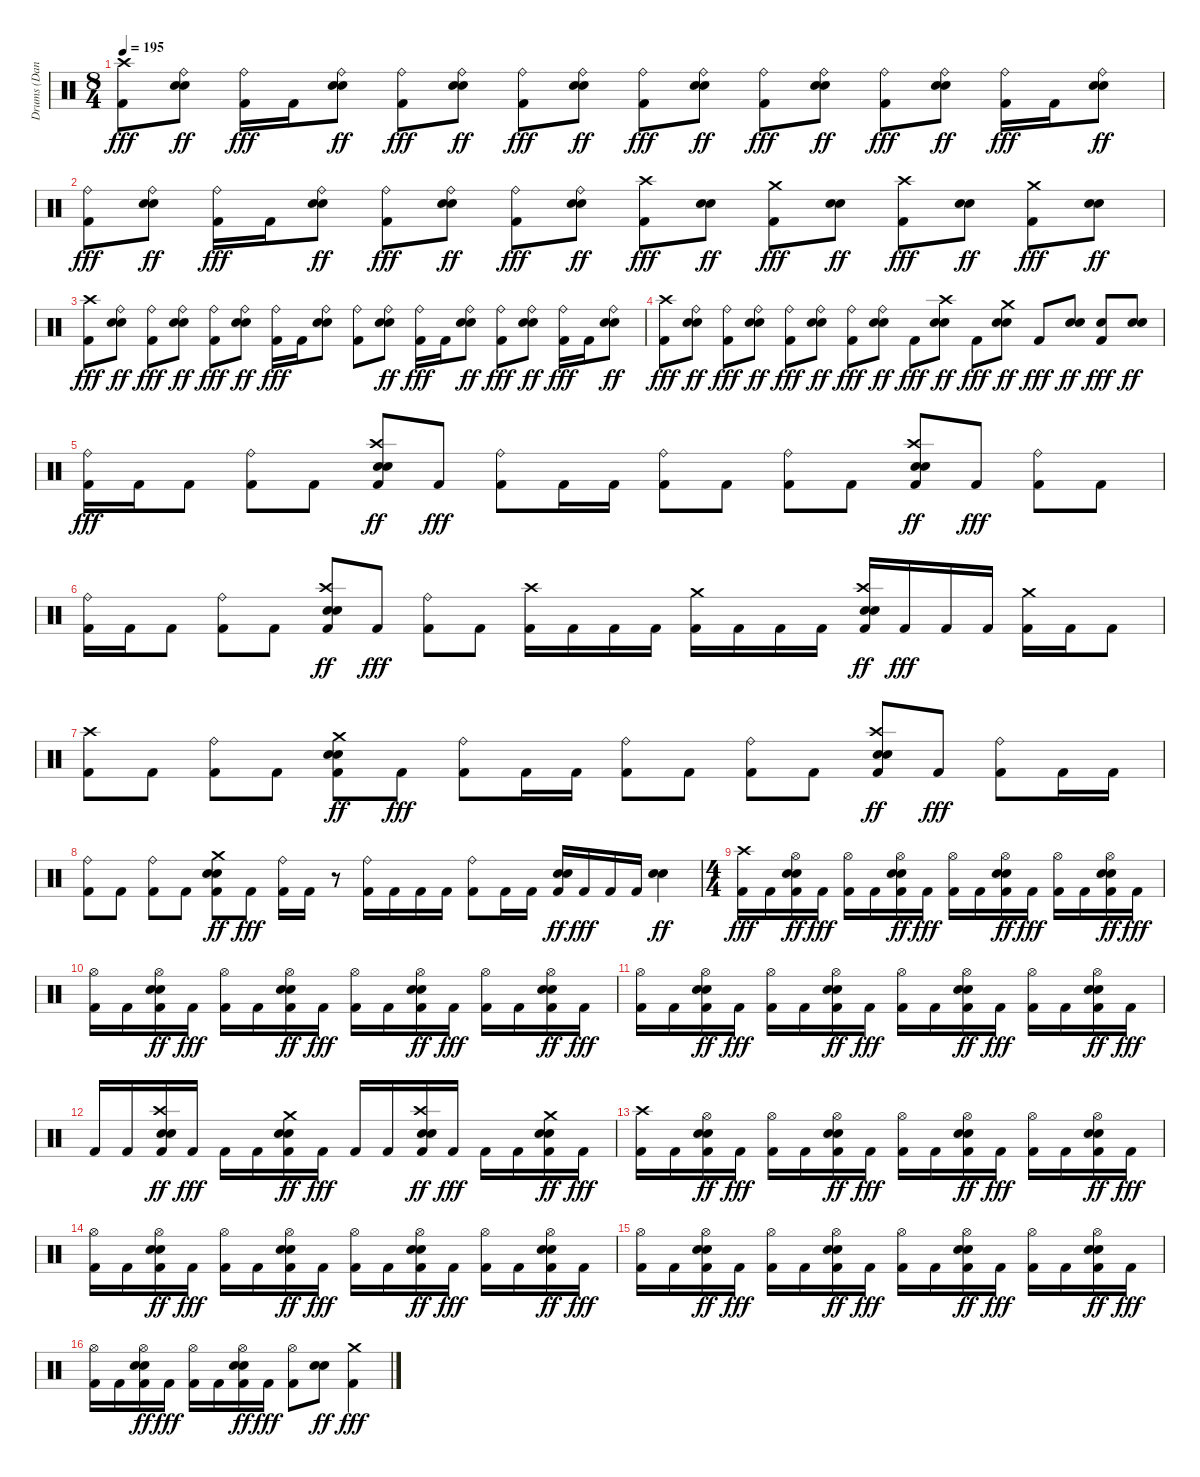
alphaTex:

\track ("Drums (Dan Zimmermann)" "Drums (Dan") {instrument percussion}
\staff {score}
\articulation defaults
\ts (8 4)
\tempo 195
\clef neutral
\ks c
("Kick (hit) 2" "Crash high (hit)").8{dy fff} ("Metronome (bell)" "Ride (bell)" "Snare (hit) 2").8{dy ff} ("Kick (hit) 2" "Ride (bell)").16{dy fff} "Kick (hit) 2".16 ("Metronome (bell)" "Ride (bell)" "Snare (hit) 2").8{dy ff} ("Kick (hit) 2" "Ride (bell)").8{dy fff} ("Metronome (bell)" "Ride (bell)" "Snare (hit) 2").8{dy ff} ("Kick (hit) 2" "Ride (bell)").8{dy fff} ("Metronome (bell)" "Ride (bell)" "Snare (hit) 2").8{dy ff} ("Kick (hit) 2" "Ride (bell)").8{dy fff} ("Metronome (bell)" "Ride (bell)" "Snare (hit) 2").8{dy ff} ("Kick (hit) 2" "Ride (bell)").8{dy fff} ("Metronome (bell)" "Ride (bell)" "Snare (hit) 2").8{dy ff} ("Kick (hit) 2" "Ride (bell)").8{dy fff} ("Metronome (bell)" "Ride (bell)" "Snare (hit) 2").8{dy ff} ("Kick (hit) 2" "Ride (bell)").16{dy fff} "Kick (hit) 2".16 ("Metronome (bell)" "Ride (bell)" "Snare (hit) 2").8{dy ff} |
("Kick (hit) 2" "Ride (bell)").8{dy fff} ("Metronome (bell)" "Ride (bell)" "Snare (hit) 2").8{dy ff} ("Kick (hit) 2" "Ride (bell)").16{dy fff} "Kick (hit) 2".16 ("Metronome (bell)" "Ride (bell)" "Snare (hit) 2").8{dy ff} ("Kick (hit) 2" "Ride (bell)").8{dy fff} ("Metronome (bell)" "Ride (bell)" "Snare (hit) 2").8{dy ff} ("Kick (hit) 2" "Ride (bell)").8{dy fff} ("Metronome (bell)" "Ride (bell)" "Snare (hit) 2").8{dy ff} ("Kick (hit) 2" "Crash high (hit)").8{dy fff} ("Metronome (bell)" "Snare (hit) 2").8{dy ff} ("Kick (hit) 2" "Crash medium (hit)").8{dy fff} ("Metronome (bell)" "Snare (hit) 2").8{dy ff} ("Kick (hit) 2" "Crash high (hit)").8{dy fff} ("Metronome (bell)" "Snare (hit) 2").8{dy ff} ("Kick (hit) 2" "Crash medium (hit)").8{dy fff} ("Metronome (bell)" "Snare (hit) 2").8{dy ff} |
("Kick (hit) 2" "Crash high (hit)").8{dy fff} ("Metronome (bell)" "Ride (bell)" "Snare (hit) 2").8{dy ff} ("Kick (hit) 2" "Ride (bell)").8{dy fff} ("Metronome (bell)" "Ride (bell)" "Snare (hit) 2").8{dy ff} ("Kick (hit) 2" "Ride (bell)").8{dy fff} ("Metronome (bell)" "Ride (bell)" "Snare (hit) 2").8{dy ff} ("Kick (hit) 2" "Ride (bell)").16{dy fff} "Kick (hit) 2".16 ("Metronome (bell)" "Ride (bell)" "Snare (hit) 2").8 ("Kick (hit) 2" "Ride (bell)").8 ("Metronome (bell)" "Ride (bell)" "Snare (hit) 2").8{dy ff} ("Kick (hit) 2" "Ride (bell)").16{dy fff} "Kick (hit) 2".16 ("Metronome (bell)" "Ride (bell)" "Snare (hit) 2").8{dy ff} ("Kick (hit) 2" "Ride (bell)").8{dy fff} ("Metronome (bell)" "Ride (bell)" "Snare (hit) 2").8{dy ff} ("Kick (hit) 2" "Ride (bell)").16{dy fff} "Kick (hit) 2".16 ("Metronome (bell)" "Ride (bell)" "Snare (hit) 2").8{dy ff} |
("Kick (hit) 2" "Crash high (hit)").8{dy fff} ("Metronome (bell)" "Ride (bell)" "Snare (hit) 2").8{dy ff} ("Kick (hit) 2" "Ride (bell)").8{dy fff} ("Metronome (bell)" "Ride (bell)" "Snare (hit) 2").8{dy ff} ("Kick (hit) 2" "Ride (bell)").8{dy fff} ("Metronome (bell)" "Ride (bell)" "Snare (hit) 2").8{dy ff} ("Kick (hit) 2" "Ride (bell)").8{dy fff} ("Metronome (bell)" "Ride (bell)" "Snare (hit) 2").8{dy ff} "Kick (hit) 2".8{dy fff} ("Metronome (bell)" "Crash high (hit)" "Snare (hit) 2").8{dy ff} "Kick (hit) 2".8{dy fff} ("Metronome (bell)" "Crash medium (hit)" "Snare (hit) 2").8{dy ff} "Kick (hit) 2".8{dy fff} ("Metronome (bell)" "Snare (hit) 2").8{dy ff} ("Metronome (bell)" "Kick (hit) 2").8{dy fff} ("Metronome (bell)" "Snare (hit) 2").8{dy ff} |
("Kick (hit) 2" "Ride (bell)").16{dy fff} "Kick (hit) 2".16 "Kick (hit) 2".8 ("Kick (hit) 2" "Ride (bell)").8 "Kick (hit) 2".8 ("Metronome (bell)" "Kick (hit) 2" "Crash high (hit)" "Snare (hit) 2").8{dy ff} "Kick (hit) 2".8{dy fff} ("Kick (hit) 2" "Ride (bell)").8 "Kick (hit) 2".16 "Kick (hit) 2".16 ("Kick (hit) 2" "Ride (bell)").8 "Kick (hit) 2".8 ("Kick (hit) 2" "Ride (bell)").8 "Kick (hit) 2".8 ("Metronome (bell)" "Kick (hit) 2" "Crash high (hit)" "Snare (hit) 2").8{dy ff} "Kick (hit) 2".8{dy fff} ("Kick (hit) 2" "Ride (bell)").8 "Kick (hit) 2".8 |
("Kick (hit) 2" "Ride (bell)").16 "Kick (hit) 2".16 "Kick (hit) 2".8 ("Kick (hit) 2" "Ride (bell)").8 "Kick (hit) 2".8 ("Metronome (bell)" "Kick (hit) 2" "Crash high (hit)" "Snare (hit) 2").8{dy ff} "Kick (hit) 2".8{dy fff} ("Kick (hit) 2" "Ride (bell)").8 "Kick (hit) 2".8 ("Kick (hit) 2" "Crash high (hit)").16 "Kick (hit) 2".16 "Kick (hit) 2".16 "Kick (hit) 2".16 ("Kick (hit) 2" "Crash medium (hit)").16 "Kick (hit) 2".16 "Kick (hit) 2".16 "Kick (hit) 2".16 ("Metronome (bell)" "Kick (hit) 2" "Crash high (hit)" "Snare (hit) 2").16{dy ff} "Kick (hit) 2".16{dy fff} "Kick (hit) 2".16 "Kick (hit) 2".16 ("Kick (hit) 2" "Crash medium (hit)").16 "Kick (hit) 2".16 "Kick (hit) 2".8 |
("Kick (hit) 2" "Crash high (hit)").8 "Kick (hit) 2".8 ("Kick (hit) 2" "Ride (bell)").8 "Kick (hit) 2".8 ("Metronome (bell)" "Kick (hit) 2" "Crash medium (hit)" "Snare (hit) 2").8{dy ff} "Kick (hit) 2".8{dy fff} ("Kick (hit) 2" "Ride (bell)").8 "Kick (hit) 2".16 "Kick (hit) 2".16 ("Kick (hit) 2" "Ride (bell)").8 "Kick (hit) 2".8 ("Kick (hit) 2" "Ride (bell)").8 "Kick (hit) 2".8 ("Metronome (bell)" "Kick (hit) 2" "Crash high (hit)" "Snare (hit) 2").8{dy ff} "Kick (hit) 2".8{dy fff} ("Kick (hit) 2" "Ride (bell)").8 "Kick (hit) 2".16 "Kick (hit) 2".16 |
("Kick (hit) 2" "Ride (bell)").8 "Kick (hit) 2".8 ("Kick (hit) 2" "Ride (bell)").8 "Kick (hit) 2".8 ("Metronome (bell)" "Kick (hit) 2" "Crash medium (hit)" "Snare (hit) 2").8{dy ff} "Kick (hit) 2".8{dy fff} ("Kick (hit) 2" "Ride (bell)").16 "Kick (hit) 2".16 r.8 ("Kick (hit) 2" "Ride (bell)").16 "Kick (hit) 2".16 "Kick (hit) 2".16 "Kick (hit) 2".16 ("Kick (hit) 2" "Ride (bell)").8 "Kick (hit) 2".16 "Kick (hit) 2".16 ("Metronome (bell)" "Kick (hit) 2" "Snare (hit) 2").16{dy ff} "Kick (hit) 2".16{dy fff} "Kick (hit) 2".16 "Kick (hit) 2".16 ("Metronome (bell)" "Snare (hit) 2").4{dy ff} |
\ts (4 4)
("Kick (hit) 2" "Crash high (hit)").16{dy fff} "Kick (hit) 2".16 ("Metronome (bell)" "Kick (hit) 2" "Hi-Hat (open)" "Snare (hit) 2").16{dy ff} "Kick (hit) 2".16{dy fff} ("Kick (hit) 2" "Hi-Hat (open)").16 "Kick (hit) 2".16 ("Metronome (bell)" "Kick (hit) 2" "Hi-Hat (open)" "Snare (hit) 2").16{dy ff} "Kick (hit) 2".16{dy fff} ("Kick (hit) 2" "Hi-Hat (open)").16 "Kick (hit) 2".16 ("Metronome (bell)" "Kick (hit) 2" "Hi-Hat (open)" "Snare (hit) 2").16{dy ff} "Kick (hit) 2".16{dy fff} ("Kick (hit) 2" "Hi-Hat (open)").16 "Kick (hit) 2".16 ("Metronome (bell)" "Kick (hit) 2" "Hi-Hat (open)" "Snare (hit) 2").16{dy ff} "Kick (hit) 2".16{dy fff} |
("Kick (hit) 2" "Hi-Hat (open)").16 "Kick (hit) 2".16 ("Metronome (bell)" "Kick (hit) 2" "Hi-Hat (open)" "Snare (hit) 2").16{dy ff} "Kick (hit) 2".16{dy fff} ("Kick (hit) 2" "Hi-Hat (open)").16 "Kick (hit) 2".16 ("Metronome (bell)" "Kick (hit) 2" "Hi-Hat (open)" "Snare (hit) 2").16{dy ff} "Kick (hit) 2".16{dy fff} ("Kick (hit) 2" "Hi-Hat (open)").16 "Kick (hit) 2".16 ("Metronome (bell)" "Kick (hit) 2" "Hi-Hat (open)" "Snare (hit) 2").16{dy ff} "Kick (hit) 2".16{dy fff} ("Kick (hit) 2" "Hi-Hat (open)").16 "Kick (hit) 2".16 ("Metronome (bell)" "Kick (hit) 2" "Hi-Hat (open)" "Snare (hit) 2").16{dy ff} "Kick (hit) 2".16{dy fff} |
("Kick (hit) 2" "Hi-Hat (open)").16 "Kick (hit) 2".16 ("Metronome (bell)" "Kick (hit) 2" "Hi-Hat (open)" "Snare (hit) 2").16{dy ff} "Kick (hit) 2".16{dy fff} ("Kick (hit) 2" "Hi-Hat (open)").16 "Kick (hit) 2".16 ("Metronome (bell)" "Kick (hit) 2" "Hi-Hat (open)" "Snare (hit) 2").16{dy ff} "Kick (hit) 2".16{dy fff} ("Kick (hit) 2" "Hi-Hat (open)").16 "Kick (hit) 2".16 ("Metronome (bell)" "Kick (hit) 2" "Hi-Hat (open)" "Snare (hit) 2").16{dy ff} "Kick (hit) 2".16{dy fff} ("Kick (hit) 2" "Hi-Hat (open)").16 "Kick (hit) 2".16 ("Metronome (bell)" "Kick (hit) 2" "Hi-Hat (open)" "Snare (hit) 2").16{dy ff} "Kick (hit) 2".16{dy fff} |
"Kick (hit) 2".16 "Kick (hit) 2".16 ("Metronome (bell)" "Kick (hit) 2" "Crash high (hit)" "Snare (hit) 2").16{dy ff} "Kick (hit) 2".16{dy fff} "Kick (hit) 2".16 "Kick (hit) 2".16 ("Metronome (bell)" "Kick (hit) 2" "Crash medium (hit)" "Snare (hit) 2").16{dy ff} "Kick (hit) 2".16{dy fff} "Kick (hit) 2".16 "Kick (hit) 2".16 ("Metronome (bell)" "Kick (hit) 2" "Crash high (hit)" "Snare (hit) 2").16{dy ff} "Kick (hit) 2".16{dy fff} "Kick (hit) 2".16 "Kick (hit) 2".16 ("Metronome (bell)" "Kick (hit) 2" "Crash medium (hit)" "Snare (hit) 2").16{dy ff} "Kick (hit) 2".16{dy fff} |
("Kick (hit) 2" "Crash high (hit)").16 "Kick (hit) 2".16 ("Metronome (bell)" "Kick (hit) 2" "Hi-Hat (open)" "Snare (hit) 2").16{dy ff} "Kick (hit) 2".16{dy fff} ("Kick (hit) 2" "Hi-Hat (open)").16 "Kick (hit) 2".16 ("Metronome (bell)" "Kick (hit) 2" "Hi-Hat (open)" "Snare (hit) 2").16{dy ff} "Kick (hit) 2".16{dy fff} ("Kick (hit) 2" "Hi-Hat (open)").16 "Kick (hit) 2".16 ("Metronome (bell)" "Kick (hit) 2" "Hi-Hat (open)" "Snare (hit) 2").16{dy ff} "Kick (hit) 2".16{dy fff} ("Kick (hit) 2" "Hi-Hat (open)").16 "Kick (hit) 2".16 ("Metronome (bell)" "Kick (hit) 2" "Hi-Hat (open)" "Snare (hit) 2").16{dy ff} "Kick (hit) 2".16{dy fff} |
("Kick (hit) 2" "Hi-Hat (open)").16 "Kick (hit) 2".16 ("Metronome (bell)" "Kick (hit) 2" "Hi-Hat (open)" "Snare (hit) 2").16{dy ff} "Kick (hit) 2".16{dy fff} ("Kick (hit) 2" "Hi-Hat (open)").16 "Kick (hit) 2".16 ("Metronome (bell)" "Kick (hit) 2" "Hi-Hat (open)" "Snare (hit) 2").16{dy ff} "Kick (hit) 2".16{dy fff} ("Kick (hit) 2" "Hi-Hat (open)").16 "Kick (hit) 2".16 ("Metronome (bell)" "Kick (hit) 2" "Hi-Hat (open)" "Snare (hit) 2").16{dy ff} "Kick (hit) 2".16{dy fff} ("Kick (hit) 2" "Hi-Hat (open)").16 "Kick (hit) 2".16 ("Metronome (bell)" "Kick (hit) 2" "Hi-Hat (open)" "Snare (hit) 2").16{dy ff} "Kick (hit) 2".16{dy fff} |
("Kick (hit) 2" "Hi-Hat (open)").16 "Kick (hit) 2".16 ("Metronome (bell)" "Kick (hit) 2" "Hi-Hat (open)" "Snare (hit) 2").16{dy ff} "Kick (hit) 2".16{dy fff} ("Kick (hit) 2" "Hi-Hat (open)").16 "Kick (hit) 2".16 ("Metronome (bell)" "Kick (hit) 2" "Hi-Hat (open)" "Snare (hit) 2").16{dy ff} "Kick (hit) 2".16{dy fff} ("Kick (hit) 2" "Hi-Hat (open)").16 "Kick (hit) 2".16 ("Metronome (bell)" "Kick (hit) 2" "Hi-Hat (open)" "Snare (hit) 2").16{dy ff} "Kick (hit) 2".16{dy fff} ("Kick (hit) 2" "Hi-Hat (open)").16 "Kick (hit) 2".16 ("Metronome (bell)" "Kick (hit) 2" "Hi-Hat (open)" "Snare (hit) 2").16{dy ff} "Kick (hit) 2".16{dy fff} |
("Kick (hit) 2" "Hi-Hat (open)").16 "Kick (hit) 2".16 ("Metronome (bell)" "Kick (hit) 2" "Hi-Hat (open)" "Snare (hit) 2").16{dy ff} "Kick (hit) 2".16{dy fff} ("Kick (hit) 2" "Hi-Hat (open)").16 "Kick (hit) 2".16 ("Metronome (bell)" "Kick (hit) 2" "Hi-Hat (open)" "Snare (hit) 2").16{dy ff} "Kick (hit) 2".16{dy fff} ("Kick (hit) 2" "Hi-Hat (open)").8 ("Metronome (bell)" "Snare (hit) 2").8{dy ff} ("Kick (hit) 2" "Crash medium (hit)").4{dy fff}
